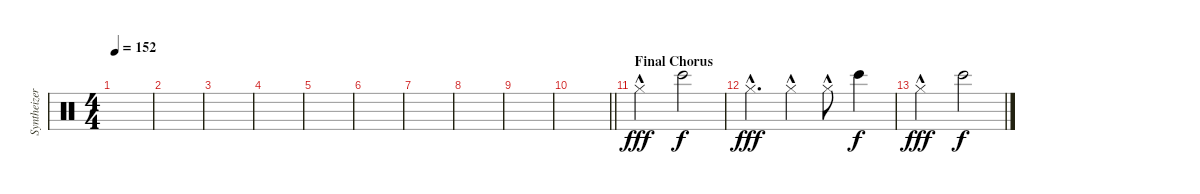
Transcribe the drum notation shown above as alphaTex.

\track ("Syntheizer" "Syntheizer") {instrument percussion}
\staff {score}
\articulation defaults
\ts (4 4)
\tempo 152
\clef neutral
\ks c
|
|
|
|
|
|
|
|
|
\barLineRight lightlight
|
\section ("" "Final Chorus")
"Hi-Hat (closed)"{hac}.2{dy fff} "Bongo High (hit)".2{dy f} |
"Hi-Hat (closed)"{hac}.4{d dy fff} "Hi-Hat (closed)"{hac}.4 "Hi-Hat (closed)"{hac}.8 "Bongo High (hit)".4{dy f} |
"Hi-Hat (closed)"{hac}.2{dy fff} "Bongo High (hit)".2{dy f}
